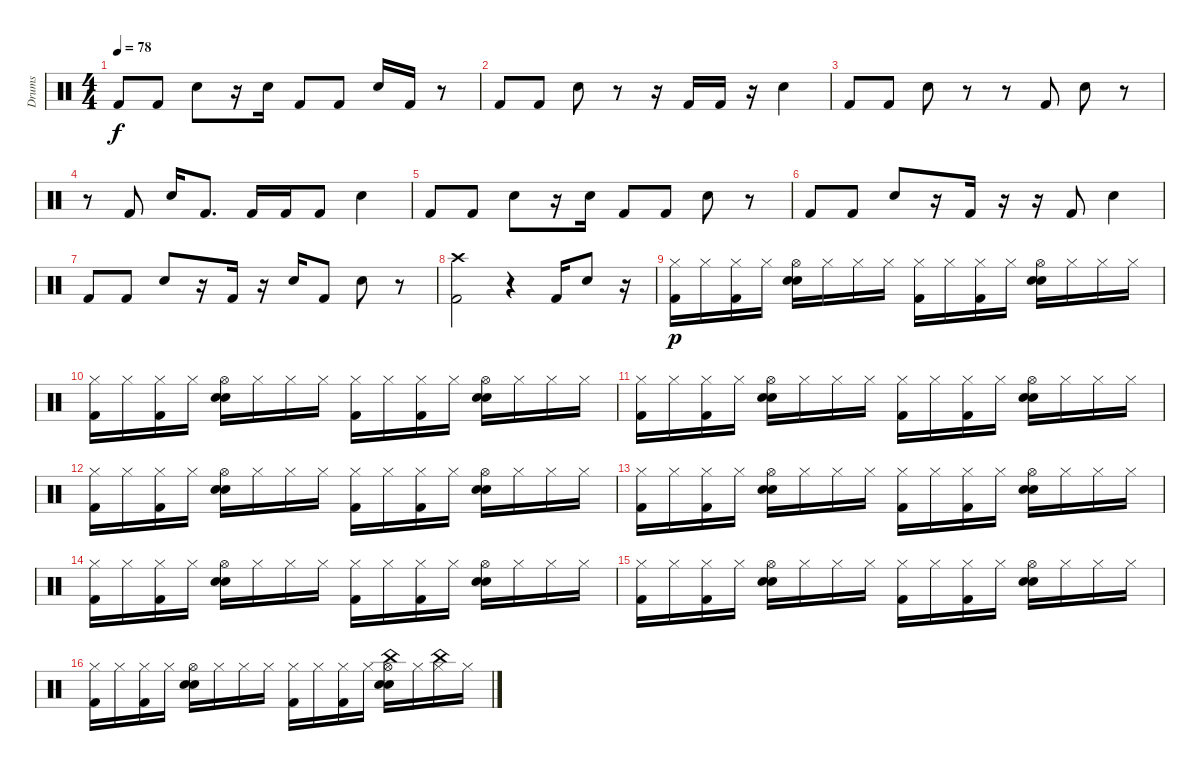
\track ("Drums" "Drums") {instrument percussion}
\staff {score}
\articulation defaults
\ts (4 4)
\tempo 78
\clef neutral
\ks c "Kick (hit) 2".8{dy f} "Kick (hit) 2".8 "Electric Snare (hit)".8
r.16 "Electric Snare (hit)".16 "Kick (hit) 2".8 "Kick (hit) 2".8 "Electric Snare (hit)".16 "Kick (hit) 2".16 r.8 |
"Kick (hit) 2".8 "Kick (hit) 2".8 "Electric Snare (hit)".8 r.8 r.16 "Kick (hit) 2".16 "Kick (hit) 2".16 r.16 "Electric Snare (hit)".4 |
"Kick (hit) 2".8 "Kick (hit) 2".8 "Electric Snare (hit)".8 r.8 r.8 "Kick (hit) 2".8 "Electric Snare (hit)".8 r.8 |
r.8 "Kick (hit) 2".8 "Electric Snare (hit)".16 "Kick (hit) 2".8{d} "Kick (hit) 2".16 "Kick (hit) 2".16 "Kick (hit) 2".8 "Electric Snare (hit)".4 |
"Kick (hit) 2".8 "Kick (hit) 2".8 "Electric Snare (hit)".8 r.16 "Electric Snare (hit)".16 "Kick (hit) 2".8 "Kick (hit) 2".8 "Electric Snare (hit)".8 r.8 |
"Kick (hit) 2".8 "Kick (hit) 2".8 "Electric Snare (hit)".8 r.16 "Kick (hit) 2".16 r.16 r.16 "Kick (hit) 2".8 "Electric Snare (hit)".4 |
"Kick (hit) 2".8 "Kick (hit) 2".8 "Electric Snare (hit)".8 r.16 "Kick (hit) 2".16 r.16 "Electric Snare (hit)".16 "Kick (hit) 2".8 "Electric Snare (hit)".8 r.8 |
("Crash high (hit)" "Kick (hit) 2").2 r.4 "Kick (hit) 2".16 "Electric Snare (hit)".8 r.16 |
("Hi-Hat (closed)" "Kick (hit) 2").16{dy p} "Hi-Hat (closed)".16 ("Hi-Hat (closed)" "Kick (hit) 2").16 "Hi-Hat (closed)".16 ("Hi-Hat (open)" "Hand Clap (hit)" "Electric Snare (hit)").16 "Hi-Hat (closed)".16 "Hi-Hat (closed)".16 "Hi-Hat (closed)".16 ("Hi-Hat (closed)" "Kick (hit) 2").16 "Hi-Hat (closed)".16 ("Hi-Hat (closed)" "Kick (hit) 2").16 "Hi-Hat (closed)".16 ("Hi-Hat (open)" "Hand Clap (hit)" "Electric Snare (hit)").16 "Hi-Hat (closed)".16 "Hi-Hat (closed)".16 "Hi-Hat (closed)".16 |
("Hi-Hat (closed)" "Kick (hit) 2").16 "Hi-Hat (closed)".16 ("Hi-Hat (closed)" "Kick (hit) 2").16 "Hi-Hat (closed)".16 ("Hi-Hat (open)" "Hand Clap (hit)" "Electric Snare (hit)").16 "Hi-Hat (closed)".16 "Hi-Hat (closed)".16 "Hi-Hat (closed)".16 ("Hi-Hat (closed)" "Kick (hit) 2").16 "Hi-Hat (closed)".16 ("Hi-Hat (closed)" "Kick (hit) 2").16 "Hi-Hat (closed)".16 ("Hi-Hat (open)" "Hand Clap (hit)" "Electric Snare (hit)").16 "Hi-Hat (closed)".16 "Hi-Hat (closed)".16 "Hi-Hat (closed)".16 |
("Hi-Hat (closed)" "Kick (hit) 2").16 "Hi-Hat (closed)".16 ("Hi-Hat (closed)" "Kick (hit) 2").16 "Hi-Hat (closed)".16 ("Hi-Hat (open)" "Hand Clap (hit)" "Electric Snare (hit)").16 "Hi-Hat (closed)".16 "Hi-Hat (closed)".16 "Hi-Hat (closed)".16 ("Hi-Hat (closed)" "Kick (hit) 2").16 "Hi-Hat (closed)".16 ("Hi-Hat (closed)" "Kick (hit) 2").16 "Hi-Hat (closed)".16 ("Hi-Hat (open)" "Hand Clap (hit)" "Electric Snare (hit)").16 "Hi-Hat (closed)".16 "Hi-Hat (closed)".16 "Hi-Hat (closed)".16 |
("Hi-Hat (closed)" "Kick (hit) 2").16 "Hi-Hat (closed)".16 ("Hi-Hat (closed)" "Kick (hit) 2").16 "Hi-Hat (closed)".16 ("Hi-Hat (open)" "Hand Clap (hit)" "Electric Snare (hit)").16 "Hi-Hat (closed)".16 "Hi-Hat (closed)".16 "Hi-Hat (closed)".16 ("Hi-Hat (closed)" "Kick (hit) 2").16 "Hi-Hat (closed)".16 ("Hi-Hat (closed)" "Kick (hit) 2").16 "Hi-Hat (closed)".16 ("Hi-Hat (open)" "Hand Clap (hit)" "Electric Snare (hit)").16 "Hi-Hat (closed)".16 "Hi-Hat (closed)".16 "Hi-Hat (closed)".16 |
("Hi-Hat (closed)" "Kick (hit) 2").16 "Hi-Hat (closed)".16 ("Hi-Hat (closed)" "Kick (hit) 2").16 "Hi-Hat (closed)".16 ("Hi-Hat (open)" "Hand Clap (hit)" "Electric Snare (hit)").16 "Hi-Hat (closed)".16 "Hi-Hat (closed)".16 "Hi-Hat (closed)".16 ("Hi-Hat (closed)" "Kick (hit) 2").16 "Hi-Hat (closed)".16 ("Hi-Hat (closed)" "Kick (hit) 2").16 "Hi-Hat (closed)".16 ("Hi-Hat (open)" "Hand Clap (hit)" "Electric Snare (hit)").16 "Hi-Hat (closed)".16 "Hi-Hat (closed)".16 "Hi-Hat (closed)".16 |
("Hi-Hat (closed)" "Kick (hit) 2").16 "Hi-Hat (closed)".16 ("Hi-Hat (closed)" "Kick (hit) 2").16 "Hi-Hat (closed)".16 ("Hi-Hat (open)" "Hand Clap (hit)" "Electric Snare (hit)").16 "Hi-Hat (closed)".16 "Hi-Hat (closed)".16 "Hi-Hat (closed)".16 ("Hi-Hat (closed)" "Kick (hit) 2").16 "Hi-Hat (closed)".16 ("Hi-Hat (closed)" "Kick (hit) 2").16 "Hi-Hat (closed)".16 ("Hi-Hat (open)" "Hand Clap (hit)" "Electric Snare (hit)").16 "Hi-Hat (closed)".16 "Hi-Hat (closed)".16 "Hi-Hat (closed)".16 |
("Hi-Hat (closed)" "Kick (hit) 2").16 "Hi-Hat (closed)".16 ("Hi-Hat (closed)" "Kick (hit) 2").16 "Hi-Hat (closed)".16 ("Hi-Hat (open)" "Hand Clap (hit)" "Electric Snare (hit)").16 "Hi-Hat (closed)".16 "Hi-Hat (closed)".16 "Hi-Hat (closed)".16 ("Hi-Hat (closed)" "Kick (hit) 2").16 "Hi-Hat (closed)".16 ("Hi-Hat (closed)" "Kick (hit) 2").16 "Hi-Hat (closed)".16 ("Hi-Hat (open)" "Hand Clap (hit)" "Electric Snare (hit)").16 "Hi-Hat (closed)".16 "Hi-Hat (closed)".16 "Hi-Hat (closed)".16 |
("Hi-Hat (closed)" "Kick (hit) 2").16 "Hi-Hat (closed)".16 ("Hi-Hat (closed)" "Kick (hit) 2").16 "Hi-Hat (closed)".16 ("Hi-Hat (open)" "Hand Clap (hit)" "Electric Snare (hit)").16 "Hi-Hat (closed)".16 "Hi-Hat (closed)".16 "Hi-Hat (closed)".16 ("Hi-Hat (closed)" "Kick (hit) 2").16 "Hi-Hat (closed)".16 ("Hi-Hat (closed)" "Kick (hit) 2").16 "Hi-Hat (closed)".16 ("China (hit)" "Hi-Hat (open)" "Hand Clap (hit)" "Electric Snare (hit)").16 "Hi-Hat (closed)".16 ("China (hit)" "Hi-Hat (closed)").16 "Hi-Hat (closed)".16
